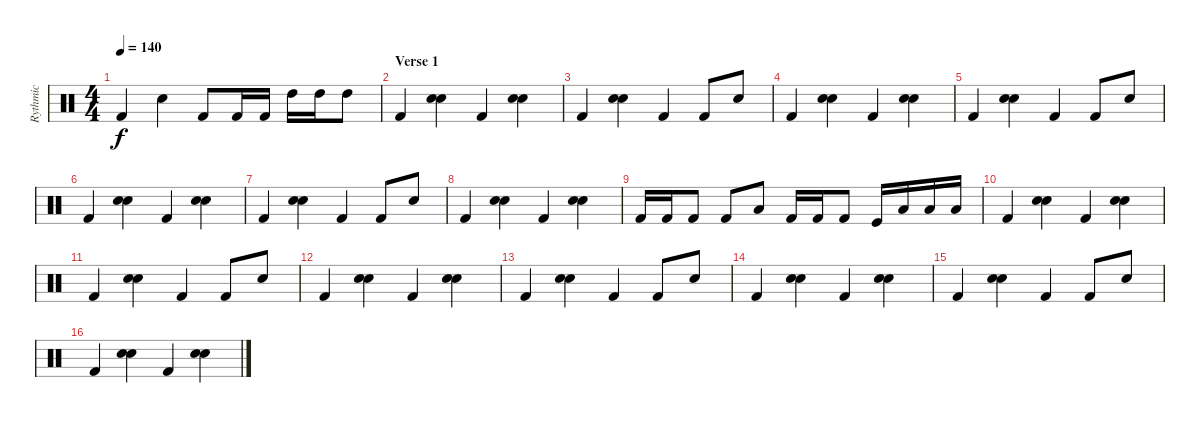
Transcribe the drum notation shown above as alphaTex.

\track ("Rythmic" "Rythmic") {instrument percussion}
\staff {score}
\articulation defaults
\ts (4 4)
\tempo 140
\clef neutral
\ks c "Kick (hit) 2".4{dy f} "Snare (hit) 2".4 "Kick (hit) 2".8 "Kick (hit) 2".16 "Kick (hit) 2".16 "High Tom (hit)".16 "High Tom (hit)".16 "High Tom (hit)".8
|
\section ("" "Verse 1")
"Kick (hit) 2".4 ("Snare (hit) 2" "Snare (hit) 2").4 "Kick (hit) 2".4 ("Snare (hit) 2" "Snare (hit) 2").4 |
"Kick (hit) 2".4 ("Snare (hit) 2" "Snare (hit) 2").4 "Kick (hit) 2".4 "Kick (hit) 2".8 "Snare (hit) 2".8 |
"Kick (hit) 2".4 ("Snare (hit) 2" "Snare (hit) 2").4 "Kick (hit) 2".4 ("Snare (hit) 2" "Snare (hit) 2").4 |
"Kick (hit) 2".4 ("Snare (hit) 2" "Snare (hit) 2").4 "Kick (hit) 2".4 "Kick (hit) 2".8 "Snare (hit) 2".8 |
"Kick (hit) 2".4 ("Snare (hit) 2" "Snare (hit) 2").4 "Kick (hit) 2".4 ("Snare (hit) 2" "Snare (hit) 2").4 |
"Kick (hit) 2".4 ("Snare (hit) 2" "Snare (hit) 2").4 "Kick (hit) 2".4 "Kick (hit) 2".8 "Snare (hit) 2".8 |
"Kick (hit) 2".4 ("Snare (hit) 2" "Snare (hit) 2").4 "Kick (hit) 2".4 ("Snare (hit) 2" "Snare (hit) 2").4 |
"Kick (hit) 2".16 "Kick (hit) 2".16 "Kick (hit) 2".8 "Kick (hit) 2".8 "Low Tom (hit)".8 "Kick (hit) 2".16 "Kick (hit) 2".16 "Kick (hit) 2".8 "Kick (hit)".16 "Low Tom (hit)".16 "Low Tom (hit)".16 "Low Tom (hit)".16 |
"Kick (hit) 2".4 ("Snare (hit) 2" "Snare (hit) 2").4 "Kick (hit) 2".4 ("Snare (hit) 2" "Snare (hit) 2").4 |
"Kick (hit) 2".4 ("Snare (hit) 2" "Snare (hit) 2").4 "Kick (hit) 2".4 "Kick (hit) 2".8 "Snare (hit) 2".8 |
"Kick (hit) 2".4 ("Snare (hit) 2" "Snare (hit) 2").4 "Kick (hit) 2".4 ("Snare (hit) 2" "Snare (hit) 2").4 |
"Kick (hit) 2".4 ("Snare (hit) 2" "Snare (hit) 2").4 "Kick (hit) 2".4 "Kick (hit) 2".8 "Snare (hit) 2".8 |
"Kick (hit) 2".4 ("Snare (hit) 2" "Snare (hit) 2").4 "Kick (hit) 2".4 ("Snare (hit) 2" "Snare (hit) 2").4 |
"Kick (hit) 2".4 ("Snare (hit) 2" "Snare (hit) 2").4 "Kick (hit) 2".4 "Kick (hit) 2".8 "Snare (hit) 2".8 |
"Kick (hit) 2".4 ("Snare (hit) 2" "Snare (hit) 2").4 "Kick (hit) 2".4 ("Snare (hit) 2" "Snare (hit) 2").4
